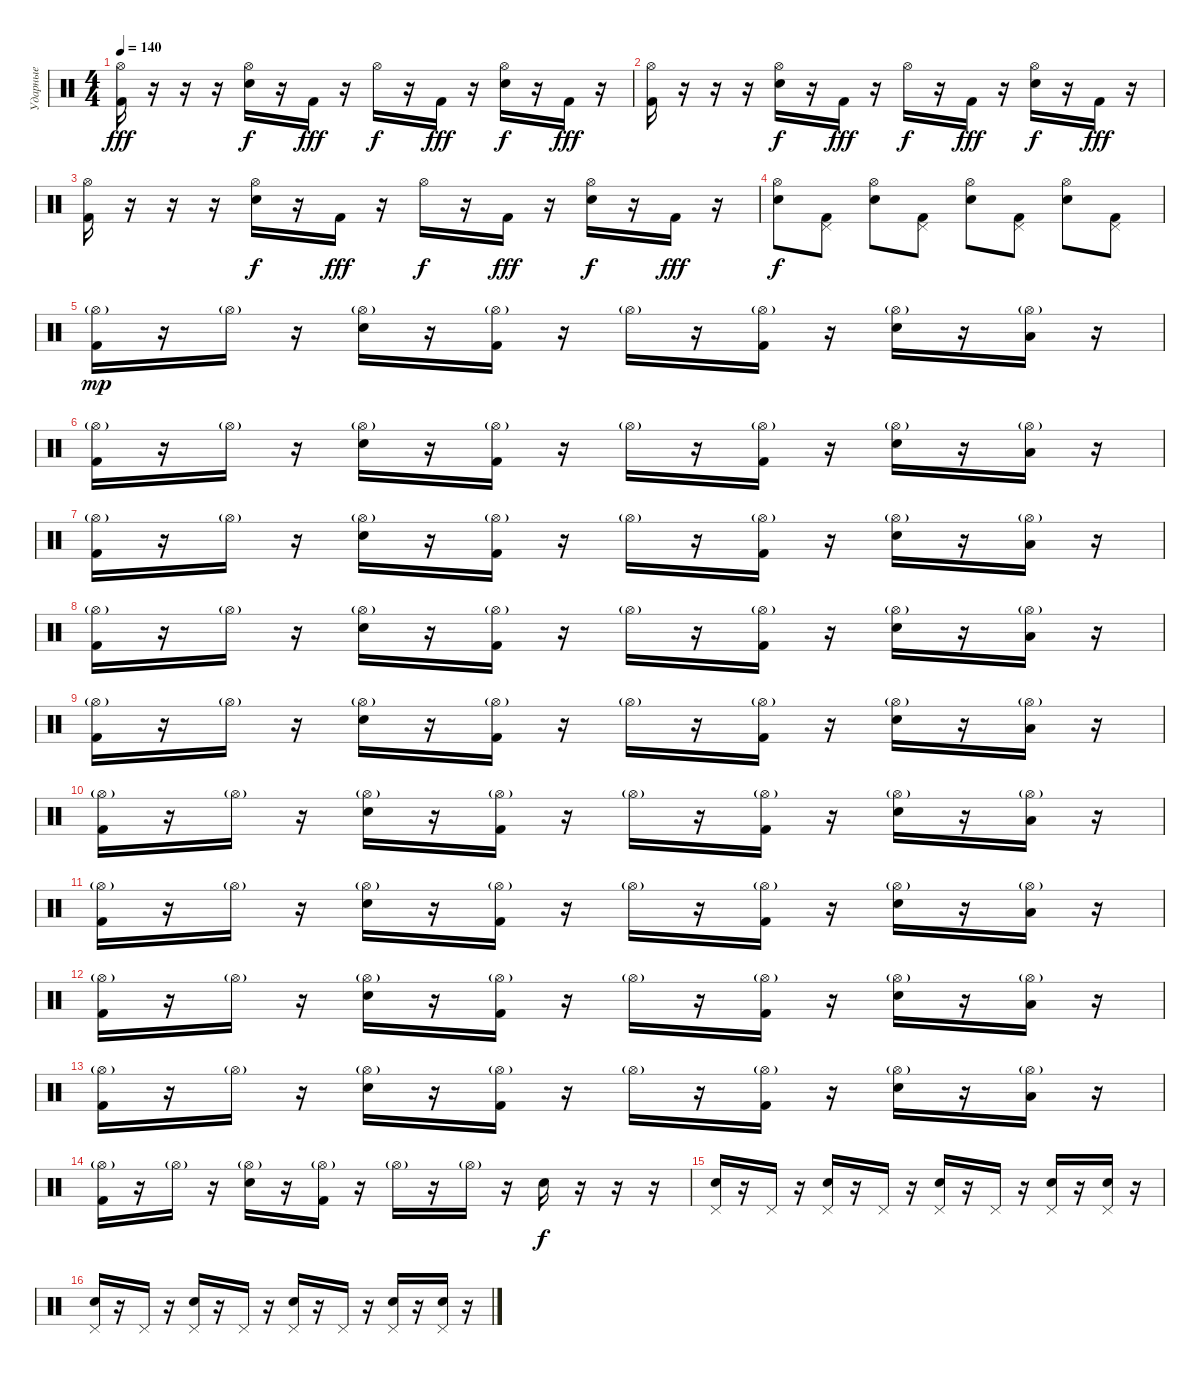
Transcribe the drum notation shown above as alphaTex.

\track ("Ударные" "Ударные") {instrument percussion}
\staff {score}
\articulation defaults
\ts (4 4)
\tempo 140
\clef neutral
\ks c
("Kick (hit) 2" "Hi-Hat (open)").16{dy fff} r.16 r.16 r.16 ("Snare (hit) 2" "Hi-Hat (open)").16{dy f} r.16 "Kick (hit) 2".16{dy fff} r.16 "Hi-Hat (open)".16{dy f} r.16 "Kick (hit) 2".16{dy fff} r.16 ("Snare (hit) 2" "Hi-Hat (open)").16{dy f} r.16 "Kick (hit) 2".16{dy fff} r.16 |
("Kick (hit) 2" "Hi-Hat (open)").16 r.16 r.16 r.16 ("Snare (hit) 2" "Hi-Hat (open)").16{dy f} r.16 "Kick (hit) 2".16{dy fff} r.16 "Hi-Hat (open)".16{dy f} r.16 "Kick (hit) 2".16{dy fff} r.16 ("Snare (hit) 2" "Hi-Hat (open)").16{dy f} r.16 "Kick (hit) 2".16{dy fff} r.16 |
("Kick (hit) 2" "Hi-Hat (open)").16 r.16 r.16 r.16 ("Snare (hit) 2" "Hi-Hat (open)").16{dy f} r.16 "Kick (hit) 2".16{dy fff} r.16 "Hi-Hat (open)".16{dy f} r.16 "Kick (hit) 2".16{dy fff} r.16 ("Snare (hit) 2" "Hi-Hat (open)").16{dy f} r.16 "Kick (hit) 2".16{dy fff} r.16 |
("Snare (hit) 2" "Hi-Hat (open)").8{dy f} ("Kick (hit) 2" "Pedal Hi-Hat (hit)").8 ("Snare (hit) 2" "Hi-Hat (open)").8 ("Kick (hit) 2" "Pedal Hi-Hat (hit)").8 ("Snare (hit) 2" "Hi-Hat (open)").8 ("Kick (hit) 2" "Pedal Hi-Hat (hit)").8 ("Snare (hit) 2" "Hi-Hat (open)").8 ("Kick (hit) 2" "Pedal Hi-Hat (hit)").8 |
("Kick (hit) 2" "Hi-Hat (open)"{g}).16{dy mp} r.16 "Hi-Hat (open)"{g}.16 r.16 ("Snare (hit) 2" "Hi-Hat (open)"{g}).16 r.16 ("Kick (hit) 2" "Hi-Hat (open)"{g}).16 r.16 "Hi-Hat (open)"{g}.16 r.16 ("Kick (hit) 2" "Hi-Hat (open)"{g}).16 r.16 ("Snare (hit) 2" "Hi-Hat (open)"{g}).16 r.16 ("Low Tom (hit)" "Hi-Hat (open)"{g}).16 r.16 |
("Kick (hit) 2" "Hi-Hat (open)"{g}).16 r.16 "Hi-Hat (open)"{g}.16 r.16 ("Snare (hit) 2" "Hi-Hat (open)"{g}).16 r.16 ("Kick (hit) 2" "Hi-Hat (open)"{g}).16 r.16 "Hi-Hat (open)"{g}.16 r.16 ("Kick (hit) 2" "Hi-Hat (open)"{g}).16 r.16 ("Snare (hit) 2" "Hi-Hat (open)"{g}).16 r.16 ("Low Tom (hit)" "Hi-Hat (open)"{g}).16 r.16 |
("Kick (hit) 2" "Hi-Hat (open)"{g}).16 r.16 "Hi-Hat (open)"{g}.16 r.16 ("Snare (hit) 2" "Hi-Hat (open)"{g}).16 r.16 ("Kick (hit) 2" "Hi-Hat (open)"{g}).16 r.16 "Hi-Hat (open)"{g}.16 r.16 ("Kick (hit) 2" "Hi-Hat (open)"{g}).16 r.16 ("Snare (hit) 2" "Hi-Hat (open)"{g}).16 r.16 ("Low Tom (hit)" "Hi-Hat (open)"{g}).16 r.16 |
("Kick (hit) 2" "Hi-Hat (open)"{g}).16 r.16 "Hi-Hat (open)"{g}.16 r.16 ("Snare (hit) 2" "Hi-Hat (open)"{g}).16 r.16 ("Kick (hit) 2" "Hi-Hat (open)"{g}).16 r.16 "Hi-Hat (open)"{g}.16 r.16 ("Kick (hit) 2" "Hi-Hat (open)"{g}).16 r.16 ("Snare (hit) 2" "Hi-Hat (open)"{g}).16 r.16 ("Low Tom (hit)" "Hi-Hat (open)"{g}).16 r.16 |
("Kick (hit) 2" "Hi-Hat (open)"{g}).16 r.16 "Hi-Hat (open)"{g}.16 r.16 ("Snare (hit) 2" "Hi-Hat (open)"{g}).16 r.16 ("Kick (hit) 2" "Hi-Hat (open)"{g}).16 r.16 "Hi-Hat (open)"{g}.16 r.16 ("Kick (hit) 2" "Hi-Hat (open)"{g}).16 r.16 ("Snare (hit) 2" "Hi-Hat (open)"{g}).16 r.16 ("Low Tom (hit)" "Hi-Hat (open)"{g}).16 r.16 |
("Kick (hit) 2" "Hi-Hat (open)"{g}).16 r.16 "Hi-Hat (open)"{g}.16 r.16 ("Snare (hit) 2" "Hi-Hat (open)"{g}).16 r.16 ("Kick (hit) 2" "Hi-Hat (open)"{g}).16 r.16 "Hi-Hat (open)"{g}.16 r.16 ("Kick (hit) 2" "Hi-Hat (open)"{g}).16 r.16 ("Snare (hit) 2" "Hi-Hat (open)"{g}).16 r.16 ("Low Tom (hit)" "Hi-Hat (open)"{g}).16 r.16 |
("Kick (hit) 2" "Hi-Hat (open)"{g}).16 r.16 "Hi-Hat (open)"{g}.16 r.16 ("Snare (hit) 2" "Hi-Hat (open)"{g}).16 r.16 ("Kick (hit) 2" "Hi-Hat (open)"{g}).16 r.16 "Hi-Hat (open)"{g}.16 r.16 ("Kick (hit) 2" "Hi-Hat (open)"{g}).16 r.16 ("Snare (hit) 2" "Hi-Hat (open)"{g}).16 r.16 ("Low Tom (hit)" "Hi-Hat (open)"{g}).16 r.16 |
("Kick (hit) 2" "Hi-Hat (open)"{g}).16 r.16 "Hi-Hat (open)"{g}.16 r.16 ("Snare (hit) 2" "Hi-Hat (open)"{g}).16 r.16 ("Kick (hit) 2" "Hi-Hat (open)"{g}).16 r.16 "Hi-Hat (open)"{g}.16 r.16 ("Kick (hit) 2" "Hi-Hat (open)"{g}).16 r.16 ("Snare (hit) 2" "Hi-Hat (open)"{g}).16 r.16 ("Low Tom (hit)" "Hi-Hat (open)"{g}).16 r.16 |
("Kick (hit) 2" "Hi-Hat (open)"{g}).16 r.16 "Hi-Hat (open)"{g}.16 r.16 ("Snare (hit) 2" "Hi-Hat (open)"{g}).16 r.16 ("Kick (hit) 2" "Hi-Hat (open)"{g}).16 r.16 "Hi-Hat (open)"{g}.16 r.16 ("Kick (hit) 2" "Hi-Hat (open)"{g}).16 r.16 ("Snare (hit) 2" "Hi-Hat (open)"{g}).16 r.16 ("Low Tom (hit)" "Hi-Hat (open)"{g}).16 r.16 |
("Kick (hit) 2" "Hi-Hat (open)"{g}).16 r.16 "Hi-Hat (open)"{g}.16 r.16 ("Snare (hit) 2" "Hi-Hat (open)"{g}).16 r.16 ("Kick (hit) 2" "Hi-Hat (open)"{g}).16 r.16 "Hi-Hat (open)"{g}.16 r.16 "Hi-Hat (open)"{g}.16 r.16 "Electric Snare (hit)".16{dy f} r.16 r.16 r.16 |
("Hand Clap (hit)" "Pedal Hi-Hat (hit)").16 r.16 "Pedal Hi-Hat (hit)".16 r.16 ("Hand Clap (hit)" "Pedal Hi-Hat (hit)").16 r.16 "Pedal Hi-Hat (hit)".16 r.16 ("Hand Clap (hit)" "Pedal Hi-Hat (hit)").16 r.16 "Pedal Hi-Hat (hit)".16 r.16 ("Hand Clap (hit)" "Pedal Hi-Hat (hit)").16 r.16 ("Hand Clap (hit)" "Pedal Hi-Hat (hit)").16 r.16 |
("Hand Clap (hit)" "Pedal Hi-Hat (hit)").16 r.16 "Pedal Hi-Hat (hit)".16 r.16 ("Hand Clap (hit)" "Pedal Hi-Hat (hit)").16 r.16 "Pedal Hi-Hat (hit)".16 r.16 ("Hand Clap (hit)" "Pedal Hi-Hat (hit)").16 r.16 "Pedal Hi-Hat (hit)".16 r.16 ("Hand Clap (hit)" "Pedal Hi-Hat (hit)").16 r.16 ("Hand Clap (hit)" "Pedal Hi-Hat (hit)").16 r.16
